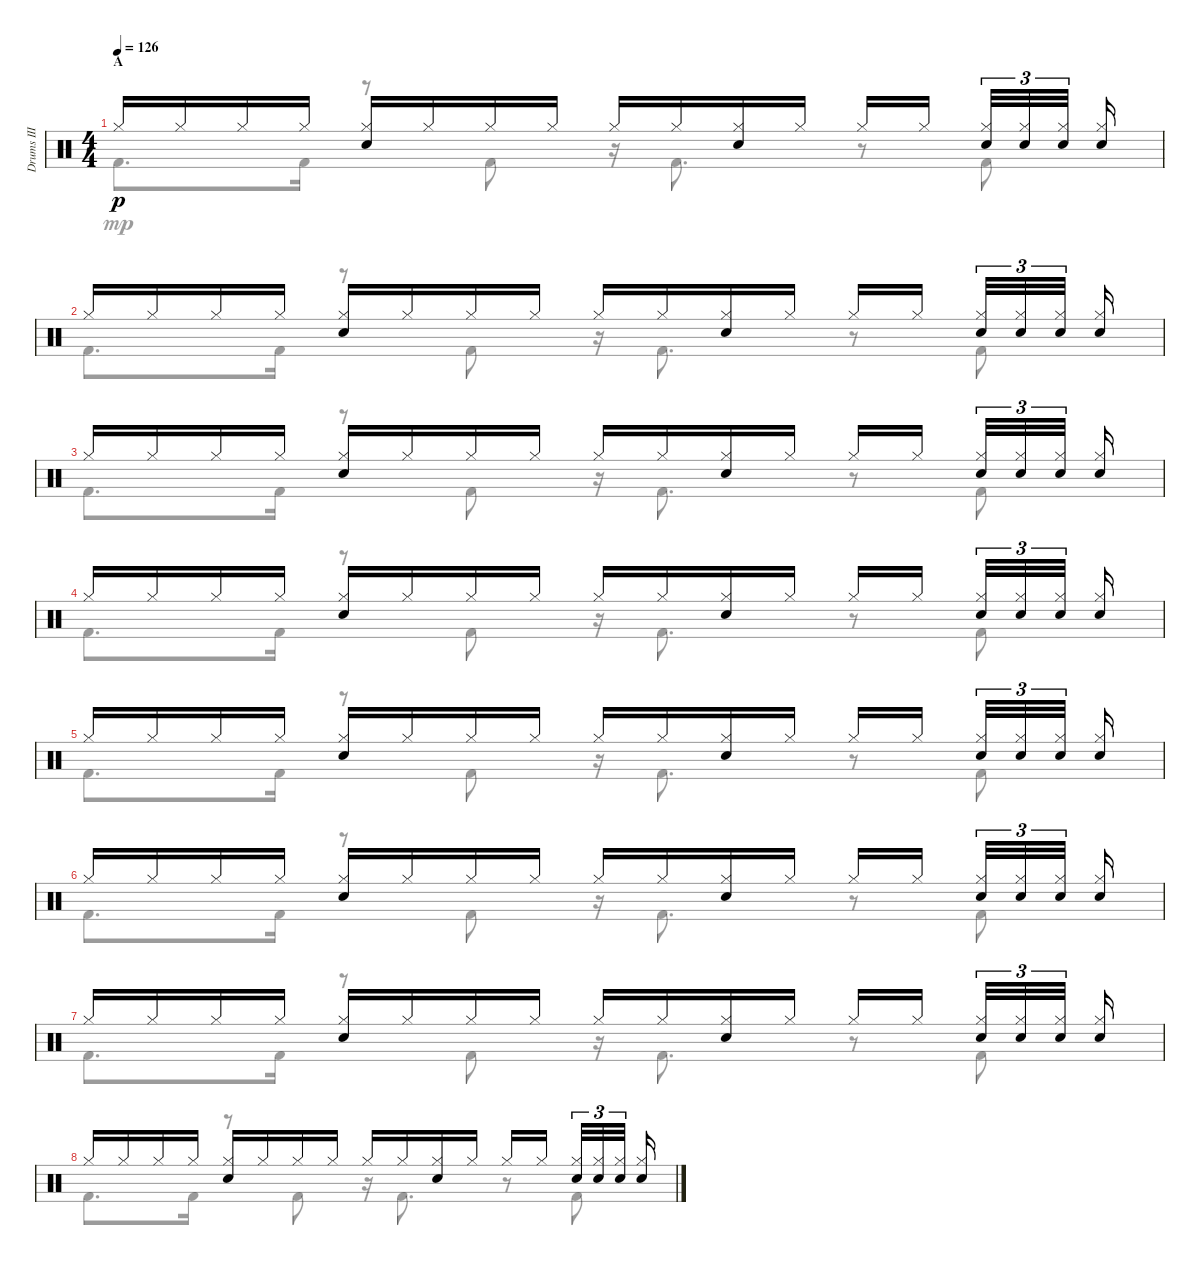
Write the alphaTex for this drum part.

\track ("Drums III" "Drums III") {instrument percussion}
\staff {score}
\articulation defaults
\voice
\ts (4 4)
\section ("" "A")
\tempo 126
\clef neutral
\ks c "Hi-Hat (closed)".16{dy p} "Hi-Hat (closed)".16 "Hi-Hat (closed)".16 "Hi-Hat (closed)".16
("Hi-Hat (closed)" "Electric Snare (hit)").16 "Hi-Hat (closed)".16 "Hi-Hat (closed)".16 "Hi-Hat (closed)".16 "Hi-Hat (closed)".16 "Hi-Hat (closed)".16 ("Hi-Hat (closed)" "Electric Snare (hit)").16 "Hi-Hat (closed)".16 "Hi-Hat (closed)".16 "Hi-Hat (closed)".16{beam splitsecondary} ("Hi-Hat (closed)" "Electric Snare (hit)").32{tu (3 2)} ("Hi-Hat (closed)" "Electric Snare (hit)").32{tu (3 2)} ("Hi-Hat (closed)" "Electric Snare (hit)").32{tu (3 2) beam splitsecondary} ("Hi-Hat (closed)" "Electric Snare (hit)").16 |
"Hi-Hat (closed)".16 "Hi-Hat (closed)".16 "Hi-Hat (closed)".16 "Hi-Hat (closed)".16 ("Hi-Hat (closed)" "Electric Snare (hit)").16 "Hi-Hat (closed)".16 "Hi-Hat (closed)".16 "Hi-Hat (closed)".16 "Hi-Hat (closed)".16 "Hi-Hat (closed)".16 ("Hi-Hat (closed)" "Electric Snare (hit)").16 "Hi-Hat (closed)".16 "Hi-Hat (closed)".16 "Hi-Hat (closed)".16{beam splitsecondary} ("Hi-Hat (closed)" "Electric Snare (hit)").32{tu (3 2)} ("Hi-Hat (closed)" "Electric Snare (hit)").32{tu (3 2)} ("Hi-Hat (closed)" "Electric Snare (hit)").32{tu (3 2) beam splitsecondary} ("Hi-Hat (closed)" "Electric Snare (hit)").16 |
"Hi-Hat (closed)".16 "Hi-Hat (closed)".16 "Hi-Hat (closed)".16 "Hi-Hat (closed)".16 ("Hi-Hat (closed)" "Electric Snare (hit)").16 "Hi-Hat (closed)".16 "Hi-Hat (closed)".16 "Hi-Hat (closed)".16 "Hi-Hat (closed)".16 "Hi-Hat (closed)".16 ("Hi-Hat (closed)" "Electric Snare (hit)").16 "Hi-Hat (closed)".16 "Hi-Hat (closed)".16 "Hi-Hat (closed)".16{beam splitsecondary} ("Hi-Hat (closed)" "Electric Snare (hit)").32{tu (3 2)} ("Hi-Hat (closed)" "Electric Snare (hit)").32{tu (3 2)} ("Hi-Hat (closed)" "Electric Snare (hit)").32{tu (3 2) beam splitsecondary} ("Hi-Hat (closed)" "Electric Snare (hit)").16 |
"Hi-Hat (closed)".16 "Hi-Hat (closed)".16 "Hi-Hat (closed)".16 "Hi-Hat (closed)".16 ("Hi-Hat (closed)" "Electric Snare (hit)").16 "Hi-Hat (closed)".16 "Hi-Hat (closed)".16 "Hi-Hat (closed)".16 "Hi-Hat (closed)".16 "Hi-Hat (closed)".16 ("Hi-Hat (closed)" "Electric Snare (hit)").16 "Hi-Hat (closed)".16 "Hi-Hat (closed)".16 "Hi-Hat (closed)".16{beam splitsecondary} ("Hi-Hat (closed)" "Electric Snare (hit)").32{tu (3 2)} ("Hi-Hat (closed)" "Electric Snare (hit)").32{tu (3 2)} ("Hi-Hat (closed)" "Electric Snare (hit)").32{tu (3 2) beam splitsecondary} ("Hi-Hat (closed)" "Electric Snare (hit)").16 |
"Hi-Hat (closed)".16 "Hi-Hat (closed)".16 "Hi-Hat (closed)".16 "Hi-Hat (closed)".16 ("Hi-Hat (closed)" "Electric Snare (hit)").16 "Hi-Hat (closed)".16 "Hi-Hat (closed)".16 "Hi-Hat (closed)".16 "Hi-Hat (closed)".16 "Hi-Hat (closed)".16 ("Hi-Hat (closed)" "Electric Snare (hit)").16 "Hi-Hat (closed)".16 "Hi-Hat (closed)".16 "Hi-Hat (closed)".16{beam splitsecondary} ("Hi-Hat (closed)" "Electric Snare (hit)").32{tu (3 2)} ("Hi-Hat (closed)" "Electric Snare (hit)").32{tu (3 2)} ("Hi-Hat (closed)" "Electric Snare (hit)").32{tu (3 2) beam splitsecondary} ("Hi-Hat (closed)" "Electric Snare (hit)").16 |
"Hi-Hat (closed)".16 "Hi-Hat (closed)".16 "Hi-Hat (closed)".16 "Hi-Hat (closed)".16 ("Hi-Hat (closed)" "Electric Snare (hit)").16 "Hi-Hat (closed)".16 "Hi-Hat (closed)".16 "Hi-Hat (closed)".16 "Hi-Hat (closed)".16 "Hi-Hat (closed)".16 ("Hi-Hat (closed)" "Electric Snare (hit)").16 "Hi-Hat (closed)".16 "Hi-Hat (closed)".16 "Hi-Hat (closed)".16{beam splitsecondary} ("Hi-Hat (closed)" "Electric Snare (hit)").32{tu (3 2)} ("Hi-Hat (closed)" "Electric Snare (hit)").32{tu (3 2)} ("Hi-Hat (closed)" "Electric Snare (hit)").32{tu (3 2) beam splitsecondary} ("Hi-Hat (closed)" "Electric Snare (hit)").16 |
"Hi-Hat (closed)".16 "Hi-Hat (closed)".16 "Hi-Hat (closed)".16 "Hi-Hat (closed)".16 ("Hi-Hat (closed)" "Electric Snare (hit)").16 "Hi-Hat (closed)".16 "Hi-Hat (closed)".16 "Hi-Hat (closed)".16 "Hi-Hat (closed)".16 "Hi-Hat (closed)".16 ("Hi-Hat (closed)" "Electric Snare (hit)").16 "Hi-Hat (closed)".16 "Hi-Hat (closed)".16 "Hi-Hat (closed)".16{beam splitsecondary} ("Hi-Hat (closed)" "Electric Snare (hit)").32{tu (3 2)} ("Hi-Hat (closed)" "Electric Snare (hit)").32{tu (3 2)} ("Hi-Hat (closed)" "Electric Snare (hit)").32{tu (3 2) beam splitsecondary} ("Hi-Hat (closed)" "Electric Snare (hit)").16 |
"Hi-Hat (closed)".16 "Hi-Hat (closed)".16 "Hi-Hat (closed)".16 "Hi-Hat (closed)".16 ("Hi-Hat (closed)" "Electric Snare (hit)").16 "Hi-Hat (closed)".16 "Hi-Hat (closed)".16 "Hi-Hat (closed)".16 "Hi-Hat (closed)".16 "Hi-Hat (closed)".16 ("Hi-Hat (closed)" "Electric Snare (hit)").16 "Hi-Hat (closed)".16 "Hi-Hat (closed)".16 "Hi-Hat (closed)".16{beam splitsecondary} ("Hi-Hat (closed)" "Electric Snare (hit)").32{tu (3 2)} ("Hi-Hat (closed)" "Electric Snare (hit)").32{tu (3 2)} ("Hi-Hat (closed)" "Electric Snare (hit)").32{tu (3 2) beam splitsecondary} ("Hi-Hat (closed)" "Electric Snare (hit)").16
\voice
\clef neutral
\ottava regular
\simile none
\ks c "Kick (hit) 2".8{d dy mp} "Kick (hit) 2".16
r.8 "Kick (hit) 2".8 r.16 "Kick (hit) 2".8{d} r.8 "Kick (hit) 2".8 |
"Kick (hit) 2".8{d} "Kick (hit) 2".16 r.8 "Kick (hit) 2".8 r.16 "Kick (hit) 2".8{d} r.8 "Kick (hit) 2".8 |
"Kick (hit) 2".8{d} "Kick (hit) 2".16 r.8 "Kick (hit) 2".8 r.16 "Kick (hit) 2".8{d} r.8 "Kick (hit) 2".8 |
"Kick (hit) 2".8{d} "Kick (hit) 2".16 r.8 "Kick (hit) 2".8 r.16 "Kick (hit) 2".8{d} r.8 "Kick (hit) 2".8 |
"Kick (hit) 2".8{d} "Kick (hit) 2".16 r.8 "Kick (hit) 2".8 r.16 "Kick (hit) 2".8{d} r.8 "Kick (hit) 2".8 |
"Kick (hit) 2".8{d} "Kick (hit) 2".16 r.8 "Kick (hit) 2".8 r.16 "Kick (hit) 2".8{d} r.8 "Kick (hit) 2".8 |
"Kick (hit) 2".8{d} "Kick (hit) 2".16 r.8 "Kick (hit) 2".8 r.16 "Kick (hit) 2".8{d} r.8 "Kick (hit) 2".8 |
"Kick (hit) 2".8{d} "Kick (hit) 2".16 r.8 "Kick (hit) 2".8 r.16 "Kick (hit) 2".8{d} r.8 "Kick (hit) 2".8
